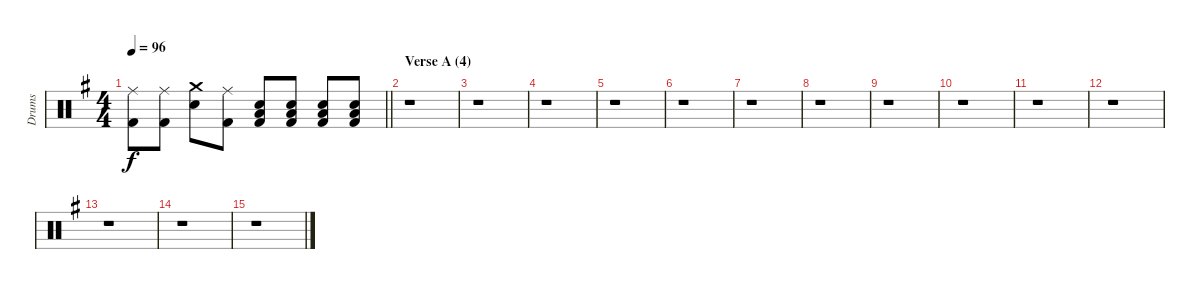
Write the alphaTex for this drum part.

\track ("Drums" "Drums") {instrument percussion}
\staff {score}
\articulation defaults
\ts (4 4)
\tempo 96
\clef neutral
\barLineRight lightlight
\ks eminor
("Ride (middle)" "Kick (hit) 2").8{dy f} ("Ride (middle)" "Kick (hit) 2").8 ("Crash medium (hit)" "Electric Snare (hit)").8 ("Ride (middle)" "Kick (hit) 2").8 ("Electric Snare (hit)" "Low Floor Tom (hit)" "Kick (hit) 2").8 ("Electric Snare (hit)" "Low Floor Tom (hit)" "Kick (hit) 2").8 ("Electric Snare (hit)" "Low Floor Tom (hit)" "Kick (hit) 2").8 ("Electric Snare (hit)" "Low Floor Tom (hit)" "Kick (hit) 2").8 |
\section ("" "Verse A (4)")
r.1 |
r.1 |
r.1 |
r.1 |
r.1 |
r.1 |
r.1 |
r.1 |
r.1 |
r.1 |
r.1 |
r.1 |
r.1 |
r.1
